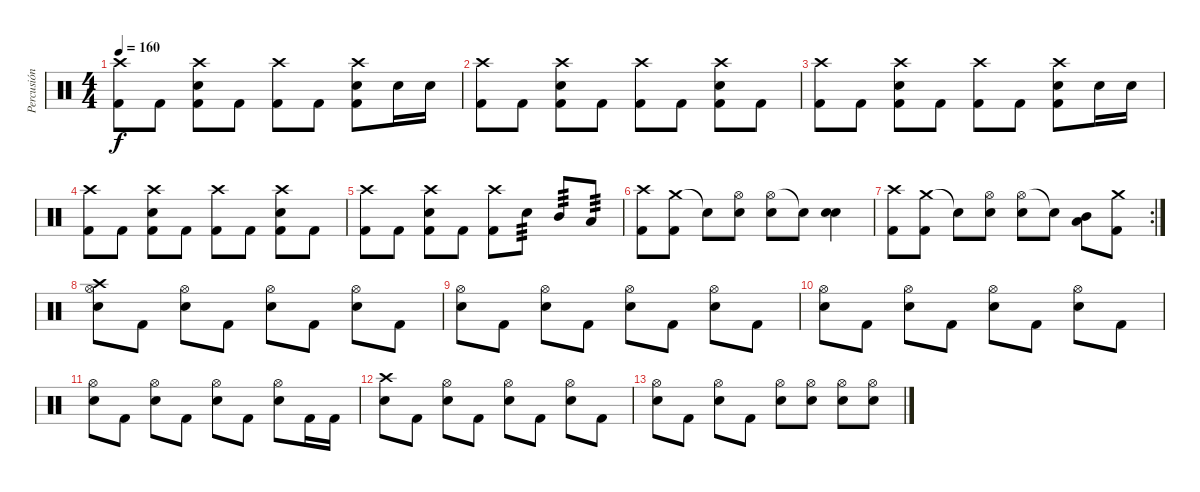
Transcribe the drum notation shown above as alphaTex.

\track ("Percusión" "Percusión") {instrument percussion}
\staff {score}
\articulation defaults
\ts (4 4)
\tempo 160
\clef neutral
\ks c
("Crash high (hit)" "Kick (hit) 2").8{dy f} "Kick (hit) 2".8 ("Crash high (hit)" "Kick (hit) 2" "Electric Snare (hit)").8 "Kick (hit) 2".8 ("Crash high (hit)" "Kick (hit) 2").8 "Kick (hit) 2".8 ("Crash high (hit)" "Kick (hit) 2" "Electric Snare (hit)").8 "Electric Snare (hit)".16 "Electric Snare (hit)".16 |
("Crash high (hit)" "Kick (hit) 2").8 "Kick (hit) 2".8 ("Crash high (hit)" "Kick (hit) 2" "Electric Snare (hit)").8 "Kick (hit) 2".8 ("Crash high (hit)" "Kick (hit) 2").8 "Kick (hit) 2".8 ("Crash high (hit)" "Kick (hit) 2" "Electric Snare (hit)").8 "Kick (hit) 2".8 |
("Crash high (hit)" "Kick (hit) 2").8 "Kick (hit) 2".8 ("Crash high (hit)" "Kick (hit) 2" "Electric Snare (hit)").8 "Kick (hit) 2".8 ("Crash high (hit)" "Kick (hit) 2").8 "Kick (hit) 2".8 ("Crash high (hit)" "Kick (hit) 2" "Electric Snare (hit)").8 "Electric Snare (hit)".16 "Electric Snare (hit)".16 |
("Crash high (hit)" "Kick (hit) 2").8 "Kick (hit) 2".8 ("Crash high (hit)" "Kick (hit) 2" "Electric Snare (hit)").8 "Kick (hit) 2".8 ("Crash high (hit)" "Kick (hit) 2").8 "Kick (hit) 2".8 ("Crash high (hit)" "Kick (hit) 2" "Electric Snare (hit)").8 "Kick (hit) 2".8 |
("Crash high (hit)" "Kick (hit) 2").8 "Kick (hit) 2".8 ("Crash high (hit)" "Kick (hit) 2" "Electric Snare (hit)").8 "Kick (hit) 2".8 ("Crash high (hit)" "Kick (hit) 2").8 "Electric Snare (hit)".8{tp 3} "Mid Tom (hit)".8{tp 3} "Low Tom (hit)".8{tp 3} |
("Crash high (hit)" "Kick (hit) 2").8 ("Crash medium (hit)" "Kick (hit) 2").8 "Snare (hit)"{t}.8 ("Hi-Hat (open)" "Electric Snare (hit)").8 ("Hi-Hat (open)" "Electric Snare (hit)").8 "Snare (hit)"{t}.8 ("Electric Snare (hit)" "Electric Snare (hit)").4{bd 480} |
\rc 2
("Crash high (hit)" "Kick (hit) 2").8 ("Crash medium (hit)" "Kick (hit) 2").8 "Snare (hit)"{t}.8 ("Hi-Hat (open)" "Electric Snare (hit)").8 ("Hi-Hat (open)" "Electric Snare (hit)").8 "Snare (hit)"{t}.8 ("Low Tom (hit)" "Mid Tom (hit)").8{bd 480} ("Crash medium (hit)" "Kick (hit) 2").8 |
("Crash high (hit)" "Hi-Hat (open)" "Electric Snare (hit)").8 "Kick (hit) 2".8 ("Hi-Hat (open)" "Electric Snare (hit)").8 "Kick (hit) 2".8 ("Hi-Hat (open)" "Electric Snare (hit)").8 "Kick (hit) 2".8 ("Hi-Hat (open)" "Electric Snare (hit)").8 "Kick (hit) 2".8 |
("Hi-Hat (open)" "Electric Snare (hit)").8 "Kick (hit) 2".8 ("Hi-Hat (open)" "Electric Snare (hit)").8 "Kick (hit) 2".8 ("Hi-Hat (open)" "Electric Snare (hit)").8 "Kick (hit) 2".8 ("Hi-Hat (open)" "Electric Snare (hit)").8 "Kick (hit) 2".8 |
("Hi-Hat (open)" "Electric Snare (hit)").8 "Kick (hit) 2".8 ("Hi-Hat (open)" "Electric Snare (hit)").8 "Kick (hit) 2".8 ("Hi-Hat (open)" "Electric Snare (hit)").8 "Kick (hit) 2".8 ("Hi-Hat (open)" "Electric Snare (hit)").8 "Kick (hit) 2".8 |
("Hi-Hat (open)" "Electric Snare (hit)").8 "Kick (hit) 2".8 ("Hi-Hat (open)" "Electric Snare (hit)").8 "Kick (hit) 2".8 ("Hi-Hat (open)" "Electric Snare (hit)").8 "Kick (hit) 2".8 ("Hi-Hat (open)" "Electric Snare (hit)").8 "Kick (hit) 2".16 "Kick (hit) 2".16 |
("Crash high (hit)" "Electric Snare (hit)").8 "Kick (hit) 2".8 ("Hi-Hat (open)" "Electric Snare (hit)").8 "Kick (hit) 2".8 ("Hi-Hat (open)" "Electric Snare (hit)").8 "Kick (hit) 2".8 ("Hi-Hat (open)" "Electric Snare (hit)").8 "Kick (hit) 2".8 |
("Hi-Hat (open)" "Electric Snare (hit)").8 "Kick (hit) 2".8 ("Hi-Hat (open)" "Electric Snare (hit)").8 "Kick (hit) 2".8 ("Hi-Hat (open)" "Electric Snare (hit)").8 ("Hi-Hat (open)" "Electric Snare (hit)").8 ("Hi-Hat (open)" "Electric Snare (hit)").8 ("Hi-Hat (open)" "Electric Snare (hit)").8
